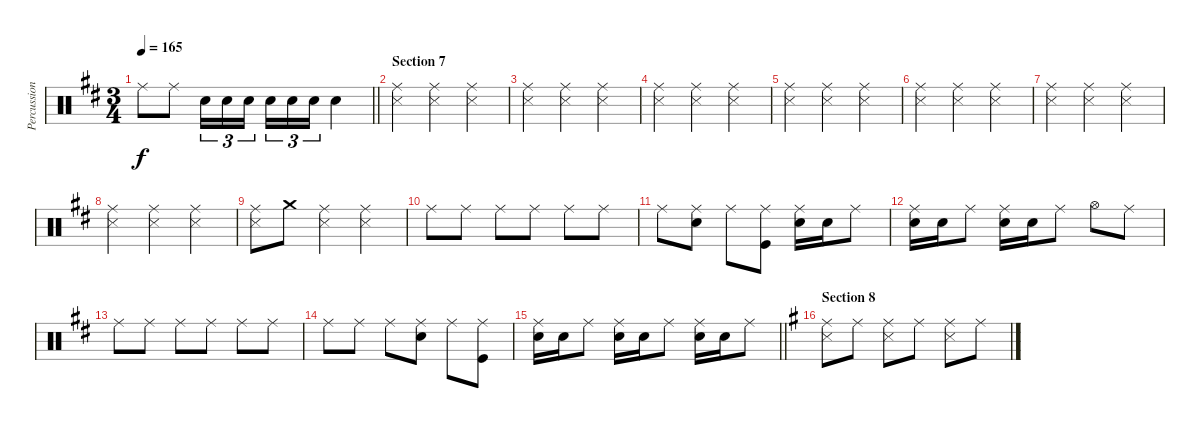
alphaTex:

\track ("Percussion" "Percussion") {instrument percussion}
\staff {score}
\articulation defaults
\ts (3 4)
\tempo 165
\clef neutral
\barLineRight lightlight
\ks d "Ride (middle)".8{dy f} "Ride (middle)".8 "Snare (hit) 2".16{tu (3 2)} "Snare (hit) 2".16{tu (3 2)} "Snare (hit) 2".16{tu (3 2) beam splitsecondary} "Snare (hit) 2".16{tu (3 2)} "Snare (hit) 2".16{tu (3 2)} "Snare (hit) 2".16{tu (3 2)} "Snare (hit) 2".4
|
\section ("" "Section 7")
("Ride (middle)" "Snare (side stick) 3").4 ("Ride (middle)" "Snare (side stick) 3").4 ("Ride (middle)" "Snare (side stick) 3").4 |
("Ride (middle)" "Snare (side stick) 3").4 ("Ride (middle)" "Snare (side stick) 3").4 ("Ride (middle)" "Snare (side stick) 3").4 |
("Ride (middle)" "Snare (side stick) 3").4 ("Ride (middle)" "Snare (side stick) 3").4 ("Ride (middle)" "Snare (side stick) 3").4 |
("Ride (middle)" "Snare (side stick) 3").4 ("Ride (middle)" "Snare (side stick) 3").4 ("Ride (middle)" "Snare (side stick) 3").4 |
("Ride (middle)" "Snare (side stick) 3").4 ("Ride (middle)" "Snare (side stick) 3").4 ("Ride (middle)" "Snare (side stick) 3").4 |
("Ride (middle)" "Snare (side stick) 3").4 ("Ride (middle)" "Snare (side stick) 3").4 ("Ride (middle)" "Snare (side stick) 3").4 |
("Ride (middle)" "Snare (side stick) 3").4 ("Ride (middle)" "Snare (side stick) 3").4 ("Ride (middle)" "Snare (side stick) 3").4 |
("Ride (middle)" "Snare (side stick) 3").8 "Crash medium (hit)".8 ("Ride (middle)" "Snare (side stick) 3").4 ("Ride (middle)" "Snare (side stick) 3").4 |
"Ride (middle)".8 "Ride (middle)".8 "Ride (middle)".8 "Ride (middle)".8 "Ride (middle)".8 "Ride (middle)".8 |
"Ride (middle)".8 ("Ride (middle)" "Snare (hit) 2").8 "Ride (middle)".8 ("Ride (middle)" "Kick (hit)").8 ("Ride (middle)" "Snare (hit) 2").16 "Snare (hit) 2".16 "Ride (middle)".8 |
("Ride (middle)" "Snare (hit) 2").16 "Snare (hit) 2".16 "Ride (middle)".8 ("Ride (middle)" "Snare (hit) 2").16 "Snare (hit) 2".16 "Ride (middle)".8 "Hi-Hat (open)".8 "Ride (middle)".8 |
"Ride (middle)".8 "Ride (middle)".8 "Ride (middle)".8 "Ride (middle)".8 "Ride (middle)".8 "Ride (middle)".8 |
"Ride (middle)".8 "Ride (middle)".8 "Ride (middle)".8 ("Ride (middle)" "Snare (hit) 2").8 "Ride (middle)".8 ("Ride (middle)" "Kick (hit)").8 |
\barLineRight lightlight
("Ride (middle)" "Snare (hit) 2").16 "Snare (hit) 2".16 "Ride (middle)".8 ("Ride (middle)" "Snare (hit) 2").16 "Snare (hit) 2".16 "Ride (middle)".8 ("Ride (middle)" "Snare (hit) 2").16 "Snare (hit) 2".16 "Ride (middle)".8 |
\section ("" "Section 8")
\ks g
("Ride (middle)" "Snare (side stick) 3").8 "Ride (middle)".8 ("Ride (middle)" "Snare (side stick) 3").8 "Ride (middle)".8 ("Ride (middle)" "Snare (side stick) 3").8 "Ride (middle)".8
